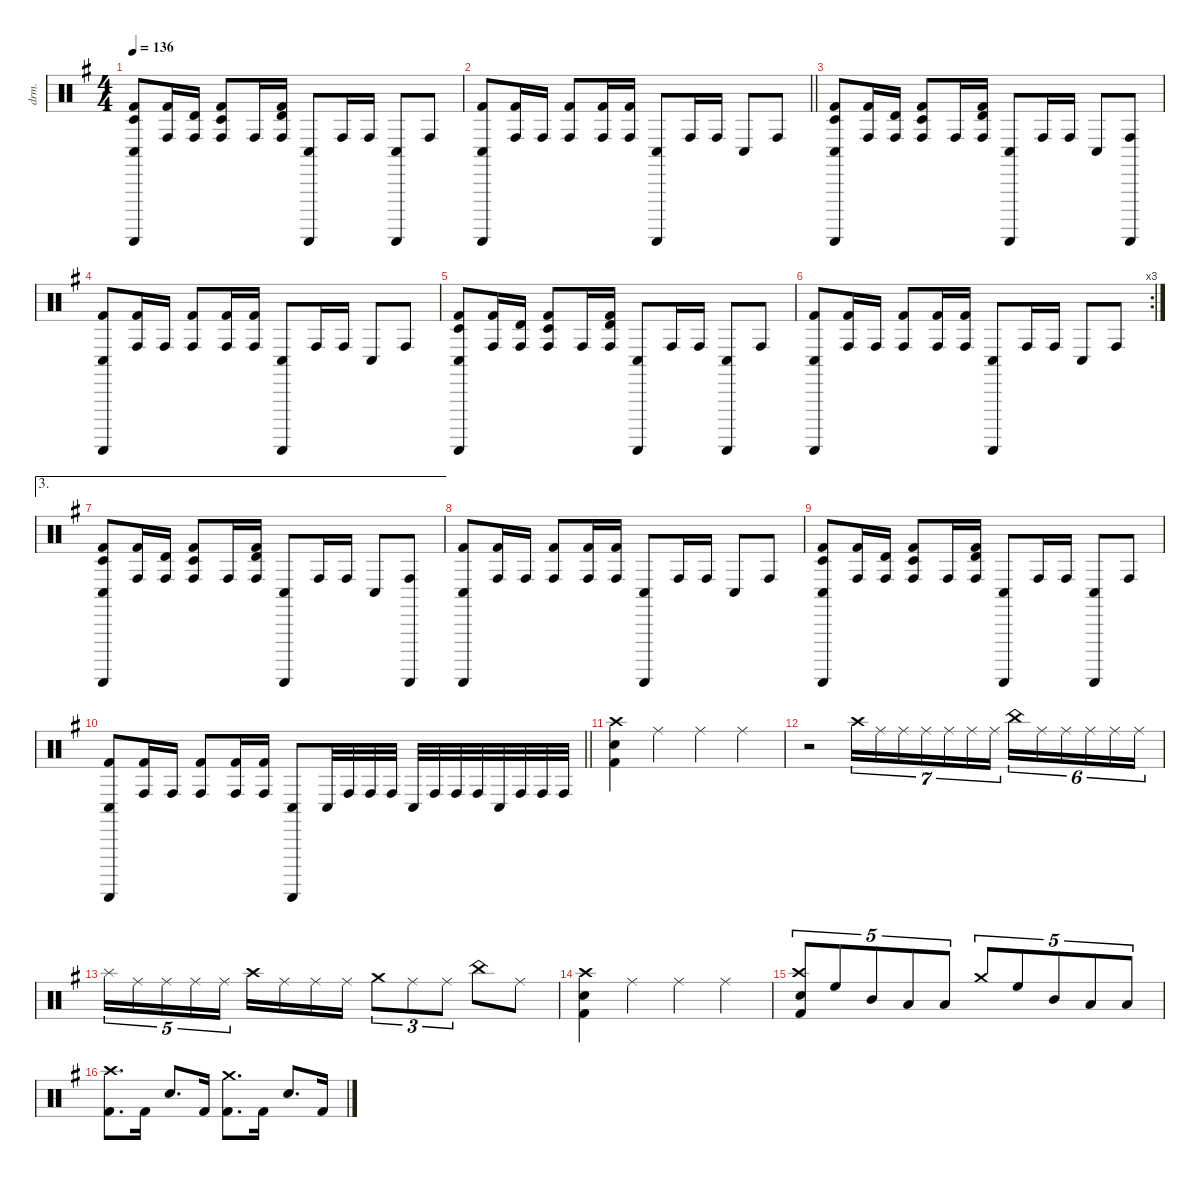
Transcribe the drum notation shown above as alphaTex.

\defaultSystemsLayout 4
\hideDynamics
\bracketExtendMode nobrackets
\otherSystemsTrackNameOrientation horizontal
\track ("Batterie" "drm.") {instrument percussion}
\staff {score}
\articulation defaults
\ts (4 4)
\tempo 136
\clef neutral
\ks g
("Conga low (hit)"{acc forcenatural} "Timbale low (hit)"{acc forcenatural} "Guiro (scrap-return)"{acc forcenatural} "Kick (hit) 2"{acc forcenatural}).8{dy f beam Up} ("Conga high (hit)"{acc forcenatural} "Kick (hit) 2"{acc forcenatural}).16{beam Up} ("Conga high (hit)"{acc forcenatural} "Timbale high (hit)"{acc forcenatural}).16{beam Up} ("Conga high (hit)"{acc forcenatural} "Timbale low (hit)"{acc forcenatural} "Kick (hit) 2"{acc forcenatural}).8{beam Up} "Conga high (hit)"{acc forcenatural}.16{beam Up} ("Conga high (hit)"{acc forcenatural} "Timbale high (hit)"{acc forcenatural} "Kick (hit) 2"{acc forcenatural}).16{beam Up} ("Conga low (hit)"{acc forcenatural} "Guiro (scrap-return)"{acc forcenatural}).8{beam Up} "Conga high (hit)"{acc forcenatural}.16{beam Up} "Conga high (hit)"{acc forcenatural}.16{beam Up} ("Conga low (hit)"{acc forcenatural} "Guiro (scrap-return)"{acc forcenatural}).8{beam Up} "Conga high (hit)"{acc forcenatural}.8{beam Up} |
\barLineRight lightlight
("Conga low (hit)"{acc forcenatural} "Guiro (scrap-return)"{acc forcenatural} "Kick (hit) 2"{acc forcenatural}).8{beam Up} ("Conga high (hit)"{acc forcenatural} "Kick (hit) 2"{acc forcenatural}).16{beam Up} "Conga high (hit)"{acc forcenatural}.16{beam Up} ("Conga high (hit)"{acc forcenatural} "Kick (hit) 2"{acc forcenatural}).8{beam Up} ("Conga high (hit)"{acc forcenatural} "Kick (hit) 2"{acc forcenatural}).16{beam Up} ("Conga high (hit)"{acc forcenatural} "Kick (hit) 2"{acc forcenatural}).16{beam Up} ("Conga low (hit)"{acc forcenatural} "Guiro (scrap-return)"{acc forcenatural}).8{beam Up} "Conga high (hit)"{acc forcenatural}.16{beam Up} "Conga high (hit)"{acc forcenatural}.16{beam Up} "Conga low (hit)"{acc forcenatural}.8{beam Up} "Conga high (hit)"{acc forcenatural}.8{beam Up} |
("Conga low (hit)"{acc forcenatural} "Timbale low (hit)"{acc forcenatural} "Guiro (scrap-return)"{acc forcenatural} "Kick (hit) 2"{acc forcenatural}).8{beam Up} ("Conga high (hit)"{acc forcenatural} "Kick (hit) 2"{acc forcenatural}).16{beam Up} ("Conga high (hit)"{acc forcenatural} "Timbale high (hit)"{acc forcenatural}).16{beam Up} ("Conga high (hit)"{acc forcenatural} "Timbale low (hit)"{acc forcenatural} "Kick (hit) 2"{acc forcenatural}).8{beam Up} "Conga high (hit)"{acc forcenatural}.16{beam Up} ("Conga high (hit)"{acc forcenatural} "Timbale high (hit)"{acc forcenatural} "Kick (hit) 2"{acc forcenatural}).16{beam Up} ("Conga low (hit)"{acc forcenatural} "Guiro (scrap-return)"{acc forcenatural}).8{beam Up} "Conga high (hit)"{acc forcenatural}.16{beam Up} "Conga high (hit)"{acc forcenatural}.16{beam Up} "Conga low (hit)"{acc forcenatural}.8{beam Up} ("Conga high (hit)"{acc forcenatural} "Guiro (scrap-return)"{acc forcenatural}).8{beam Up} |
("Conga low (hit)"{acc forcenatural} "Guiro (scrap-return)"{acc forcenatural} "Kick (hit) 2"{acc forcenatural}).8{beam Up} ("Conga high (hit)"{acc forcenatural} "Kick (hit) 2"{acc forcenatural}).16{beam Up} "Conga high (hit)"{acc forcenatural}.16{beam Up} ("Conga high (hit)"{acc forcenatural} "Kick (hit) 2"{acc forcenatural}).8{beam Up} ("Conga high (hit)"{acc forcenatural} "Kick (hit) 2"{acc forcenatural}).16{beam Up} ("Conga high (hit)"{acc forcenatural} "Kick (hit) 2"{acc forcenatural}).16{beam Up} ("Conga low (hit)"{acc forcenatural} "Guiro (scrap-return)"{acc forcenatural}).8{beam Up} "Conga high (hit)"{acc forcenatural}.16{beam Up} "Conga high (hit)"{acc forcenatural}.16{beam Up} "Conga low (hit)"{acc forcenatural}.8{beam Up} "Conga high (hit)"{acc forcenatural}.8{beam Up} |
("Conga low (hit)"{acc forcenatural} "Timbale low (hit)"{acc forcenatural} "Guiro (scrap-return)"{acc forcenatural} "Kick (hit) 2"{acc forcenatural}).8{beam Up} ("Conga high (hit)"{acc forcenatural} "Kick (hit) 2"{acc forcenatural}).16{beam Up} ("Conga high (hit)"{acc forcenatural} "Timbale high (hit)"{acc forcenatural}).16{beam Up} ("Conga high (hit)"{acc forcenatural} "Timbale low (hit)"{acc forcenatural} "Kick (hit) 2"{acc forcenatural}).8{beam Up} "Conga high (hit)"{acc forcenatural}.16{beam Up} ("Conga high (hit)"{acc forcenatural} "Timbale high (hit)"{acc forcenatural} "Kick (hit) 2"{acc forcenatural}).16{beam Up} ("Conga low (hit)"{acc forcenatural} "Guiro (scrap-return)"{acc forcenatural}).8{beam Up} "Conga high (hit)"{acc forcenatural}.16{beam Up} "Conga high (hit)"{acc forcenatural}.16{beam Up} ("Conga low (hit)"{acc forcenatural} "Guiro (scrap-return)"{acc forcenatural}).8{beam Up} "Conga high (hit)"{acc forcenatural}.8{beam Up} |
\rc 3
("Conga low (hit)"{acc forcenatural} "Guiro (scrap-return)"{acc forcenatural} "Kick (hit) 2"{acc forcenatural}).8{beam Up} ("Conga high (hit)"{acc forcenatural} "Kick (hit) 2"{acc forcenatural}).16{beam Up} "Conga high (hit)"{acc forcenatural}.16{beam Up} ("Conga high (hit)"{acc forcenatural} "Kick (hit) 2"{acc forcenatural}).8{beam Up} ("Conga high (hit)"{acc forcenatural} "Kick (hit) 2"{acc forcenatural}).16{beam Up} ("Conga high (hit)"{acc forcenatural} "Kick (hit) 2"{acc forcenatural}).16{beam Up} ("Conga low (hit)"{acc forcenatural} "Guiro (scrap-return)"{acc forcenatural}).8{beam Up} "Conga high (hit)"{acc forcenatural}.16{beam Up} "Conga high (hit)"{acc forcenatural}.16{beam Up} "Conga low (hit)"{acc forcenatural}.8{beam Up} "Conga high (hit)"{acc forcenatural}.8{beam Up} |
\ae 3
("Conga low (hit)"{acc forcenatural} "Timbale low (hit)"{acc forcenatural} "Guiro (scrap-return)"{acc forcenatural} "Kick (hit) 2"{acc forcenatural}).8{beam Up} ("Conga high (hit)"{acc forcenatural} "Kick (hit) 2"{acc forcenatural}).16{beam Up} ("Conga high (hit)"{acc forcenatural} "Timbale high (hit)"{acc forcenatural}).16{beam Up} ("Conga high (hit)"{acc forcenatural} "Timbale low (hit)"{acc forcenatural} "Kick (hit) 2"{acc forcenatural}).8{beam Up} "Conga high (hit)"{acc forcenatural}.16{beam Up} ("Conga high (hit)"{acc forcenatural} "Timbale high (hit)"{acc forcenatural} "Kick (hit) 2"{acc forcenatural}).16{beam Up} ("Conga low (hit)"{acc forcenatural} "Guiro (scrap-return)"{acc forcenatural}).8{beam Up} "Conga high (hit)"{acc forcenatural}.16{beam Up} "Conga high (hit)"{acc forcenatural}.16{beam Up} "Conga low (hit)"{acc forcenatural}.8{beam Up} ("Conga high (hit)"{acc forcenatural} "Guiro (scrap-return)"{acc forcenatural}).8{beam Up} |
("Conga low (hit)"{acc forcenatural} "Guiro (scrap-return)"{acc forcenatural} "Kick (hit) 2"{acc forcenatural}).8{beam Up} ("Conga high (hit)"{acc forcenatural} "Kick (hit) 2"{acc forcenatural}).16{beam Up} "Conga high (hit)"{acc forcenatural}.16{beam Up} ("Conga high (hit)"{acc forcenatural} "Kick (hit) 2"{acc forcenatural}).8{beam Up} ("Conga high (hit)"{acc forcenatural} "Kick (hit) 2"{acc forcenatural}).16{beam Up} ("Conga high (hit)"{acc forcenatural} "Kick (hit) 2"{acc forcenatural}).16{beam Up} ("Conga low (hit)"{acc forcenatural} "Guiro (scrap-return)"{acc forcenatural}).8{beam Up} "Conga high (hit)"{acc forcenatural}.16{beam Up} "Conga high (hit)"{acc forcenatural}.16{beam Up} "Conga low (hit)"{acc forcenatural}.8{beam Up} "Conga high (hit)"{acc forcenatural}.8{beam Up} |
("Conga low (hit)"{acc forcenatural} "Timbale low (hit)"{acc forcenatural} "Guiro (scrap-return)"{acc forcenatural} "Kick (hit) 2"{acc forcenatural}).8{beam Up} ("Conga high (hit)"{acc forcenatural} "Kick (hit) 2"{acc forcenatural}).16{beam Up} ("Conga high (hit)"{acc forcenatural} "Timbale high (hit)"{acc forcenatural}).16{beam Up} ("Conga high (hit)"{acc forcenatural} "Timbale low (hit)"{acc forcenatural} "Kick (hit) 2"{acc forcenatural}).8{beam Up} "Conga high (hit)"{acc forcenatural}.16{beam Up} ("Conga high (hit)"{acc forcenatural} "Timbale high (hit)"{acc forcenatural} "Kick (hit) 2"{acc forcenatural}).16{beam Up} ("Conga low (hit)"{acc forcenatural} "Guiro (scrap-return)"{acc forcenatural}).8{beam Up} "Conga high (hit)"{acc forcenatural}.16{beam Up} "Conga high (hit)"{acc forcenatural}.16{beam Up} ("Conga low (hit)"{acc forcenatural} "Guiro (scrap-return)"{acc forcenatural}).8{beam Up} "Conga high (hit)"{acc forcenatural}.8{beam Up} |
\barLineRight lightlight
("Conga low (hit)"{acc forcenatural} "Guiro (scrap-return)"{acc forcenatural} "Kick (hit) 2"{acc forcenatural}).8{beam Up} ("Conga high (hit)"{acc forcenatural} "Kick (hit) 2"{acc forcenatural}).16{beam Up} "Conga high (hit)"{acc forcenatural}.16{beam Up} ("Conga high (hit)"{acc forcenatural} "Kick (hit) 2"{acc forcenatural}).8{beam Up} ("Conga high (hit)"{acc forcenatural} "Kick (hit) 2"{acc forcenatural}).16{beam Up} ("Conga high (hit)"{acc forcenatural} "Kick (hit) 2"{acc forcenatural}).16{beam Up} ("Conga low (hit)"{acc forcenatural} "Guiro (scrap-return)"{acc forcenatural}).8{beam Up} "Conga low (hit)"{acc forcenatural}.32{dy p beam Up} "Conga high (hit)"{acc forcenatural}.32{beam Up} "Conga high (hit)"{acc forcenatural}.32{dy mp beam Up} "Conga high (hit)"{acc forcenatural}.32{beam Up} "Conga low (hit)"{acc forcenatural}.32{dy mf beam Up} "Conga high (hit)"{acc forcenatural}.32{beam Up} "Conga high (hit)"{acc forcenatural}.32{dy f beam Up} "Conga high (hit)"{acc forcenatural}.32{beam Up} "Conga low (hit)"{acc forcenatural}.32{dy ff beam Up} "Conga high (hit)"{acc forcenatural}.32{beam Up} "Conga high (hit)"{acc forcenatural}.32{dy fff beam Up} "Conga high (hit)"{acc forcenatural}.32{beam Up} |
("Crash high (hit)"{acc forcenatural} "Snare (hit) 2"{acc forcenatural} "Kick (hit) 2"{acc forcenatural}).4{dy f beam Down} "Ride (middle)"{acc forcenatural}.4{beam Down} "Ride (middle)"{acc forcenatural}.4{beam Down} "Ride (middle)"{acc forcenatural}.4{beam Down} |
r.2{beam Down} "Crash high (hit)"{acc forcenatural}.16{tu (7 4) beam Down} "Ride (middle)"{acc forcenatural}.16{tu (7 4) beam Down} "Ride (middle)"{acc forcenatural}.16{tu (7 4) beam Down} "Ride (middle)"{acc forcenatural}.16{tu (7 4) beam Down} "Ride (middle)"{acc forcenatural}.16{tu (7 4) beam Down} "Ride (middle)"{acc forcenatural}.16{tu (7 4) beam Down} "Ride (middle)"{acc forcenatural}.16{tu (7 4) beam Down} "China (hit)"{acc forcenatural}.16{tu (6 4) beam Down} "Ride (middle)"{acc forcenatural}.16{tu (6 4) beam Down} "Ride (middle)"{acc forcenatural}.16{tu (6 4) beam Down} "Ride (middle)"{acc forcenatural}.16{tu (6 4) beam Down} "Ride (middle)"{acc forcenatural}.16{tu (6 4) beam Down} "Ride (middle)"{acc forcenatural}.16{tu (6 4) beam Down} |
"Splash (hit)"{acc forcenatural}.16{tu (5 4) beam Down} "Ride (middle)"{acc forcenatural}.16{tu (5 4) beam Down} "Ride (middle)"{acc forcenatural}.16{tu (5 4) beam Down} "Ride (middle)"{acc forcenatural}.16{tu (5 4) beam Down} "Ride (middle)"{acc forcenatural}.16{tu (5 4) beam Down} "Crash high (hit)"{acc forcenatural}.16{beam Down} "Ride (middle)"{acc forcenatural}.16{beam Down} "Ride (middle)"{acc forcenatural}.16{beam Down} "Ride (middle)"{acc forcenatural}.16{beam Down} "Crash medium (hit)"{acc forcenatural}.8{tu (3 2) beam Down} "Ride (middle)"{acc forcenatural}.8{tu (3 2) beam Down} "Ride (middle)"{acc forcenatural}.8{tu (3 2) beam Down} "China (hit)"{acc forcenatural}.8{beam Down} "Ride (middle)"{acc forcenatural}.8{beam Down} |
("Crash high (hit)"{acc forcenatural} "Snare (hit) 2"{acc forcenatural} "Kick (hit) 2"{acc forcenatural}).4{beam Down} "Ride (middle)"{acc forcenatural}.4{beam Down} "Ride (middle)"{acc forcenatural}.4{beam Down} "Ride (middle)"{acc forcenatural}.4{beam Down} |
("Crash high (hit)"{acc forcenatural} "Snare (hit) 2"{acc forcenatural} "Kick (hit) 2"{acc forcenatural}).8{tu (5 4) beam Up} "High Floor Tom (hit)"{acc forcenatural}.8{tu (5 4) beam Up} "Mid Tom (hit)"{acc forcenatural}.8{tu (5 4) beam Up} "Low Tom (hit)"{acc forcenatural}.8{tu (5 4) beam Up} "Low Floor Tom (hit)"{acc forcenatural}.8{tu (5 4) beam Up} "Crash medium (hit)"{acc forcenatural}.8{tu (5 4) beam Up} "High Floor Tom (hit)"{acc forcenatural}.8{tu (5 4) beam Up} "Mid Tom (hit)"{acc forcenatural}.8{tu (5 4) beam Up} "Low Tom (hit)"{acc forcenatural}.8{tu (5 4) beam Up} "Low Floor Tom (hit)"{acc forcenatural}.8{tu (5 4) beam Up} |
("Crash high (hit)"{acc forcenatural} "Kick (hit) 2"{acc forcenatural}).8{d beam Down} "Kick (hit) 2"{acc forcenatural}.16{beam Down} "Snare (hit) 2"{acc forcenatural}.8{d beam Up} "Kick (hit) 2"{acc forcenatural}.16{beam Up} ("Crash medium (hit)"{acc forcenatural} "Kick (hit) 2"{acc forcenatural}).8{d beam Down} "Kick (hit) 2"{acc forcenatural}.16{beam Down} "Snare (hit) 2"{acc forcenatural}.8{d beam Up} "Kick (hit) 2"{acc forcenatural}.16{beam Up}
